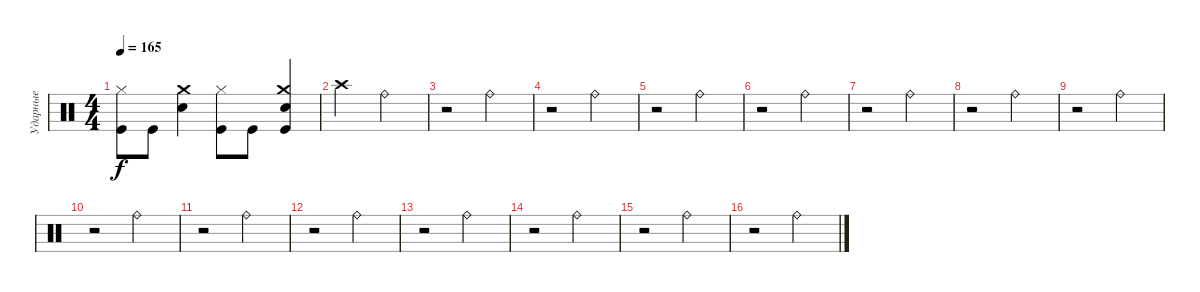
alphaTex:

\track ("Ударные" "Ударные") {instrument percussion}
\staff {score}
\articulation defaults
\ts (4 4)
\tempo 165
\clef neutral
\ks c
("Hi-Hat (closed)" "Kick (hit)").8{dy f} "Kick (hit)".8 ("Crash medium (hit)" "Electric Snare (hit)").4 ("Hi-Hat (closed)" "Kick (hit)").8 "Kick (hit)".8 ("Crash medium (hit)" "Electric Snare (hit)" "Kick (hit)").4 |
"Crash high (hit)".2 "Ride (bell)".2 |
r.2 "Ride (bell)".2 |
r.2 "Ride (bell)".2 |
r.2 "Ride (bell)".2 |
r.2 "Ride (bell)".2 |
r.2 "Ride (bell)".2 |
r.2 "Ride (bell)".2 |
r.2 "Ride (bell)".2 |
r.2 "Ride (bell)".2 |
r.2 "Ride (bell)".2 |
r.2 "Ride (bell)".2 |
r.2 "Ride (bell)".2 |
r.2 "Ride (bell)".2 |
r.2 "Ride (bell)".2 |
r.2 "Ride (bell)".2
